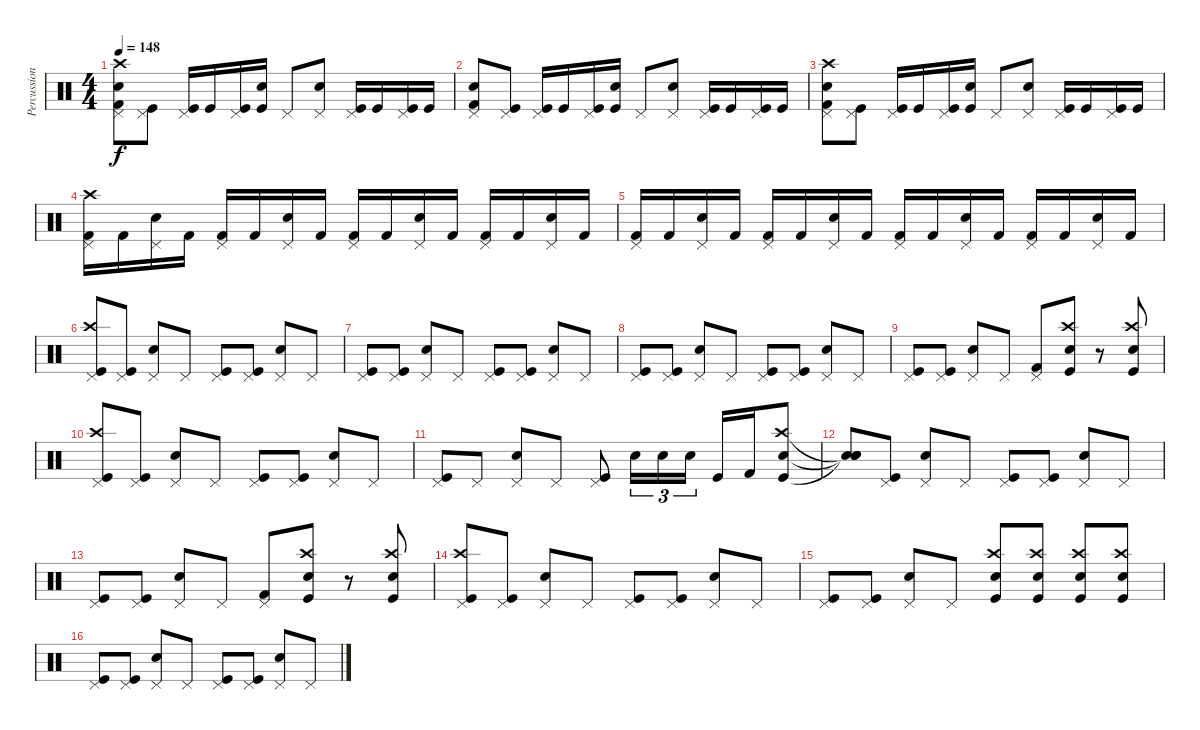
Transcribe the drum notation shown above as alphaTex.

\track ("Percussion" "Percussion") {instrument percussion}
\staff {score}
\articulation defaults
\ts (4 4)
\tempo 148
\clef neutral
\ks c
("Pedal Hi-Hat (hit)" "Kick (hit) 2" "Snare (hit) 2" "Crash high (hit)").8{dy f} ("Pedal Hi-Hat (hit)" "Kick (hit)").8 ("Pedal Hi-Hat (hit)" "Kick (hit)").16 "Kick (hit)".16 ("Pedal Hi-Hat (hit)" "Kick (hit)").16 ("Snare (hit) 2" "Kick (hit)").16 "Pedal Hi-Hat (hit)".8 ("Pedal Hi-Hat (hit)" "Snare (hit) 2").8 ("Pedal Hi-Hat (hit)" "Kick (hit)").16 "Kick (hit)".16 ("Pedal Hi-Hat (hit)" "Kick (hit)").16 "Kick (hit)".16 |
("Pedal Hi-Hat (hit)" "Kick (hit) 2" "Snare (hit) 2").8 ("Pedal Hi-Hat (hit)" "Kick (hit)").8 ("Pedal Hi-Hat (hit)" "Kick (hit)").16 "Kick (hit)".16 ("Pedal Hi-Hat (hit)" "Kick (hit)").16 ("Snare (hit) 2" "Kick (hit)").16 "Pedal Hi-Hat (hit)".8 ("Pedal Hi-Hat (hit)" "Snare (hit) 2").8 ("Pedal Hi-Hat (hit)" "Kick (hit)").16 "Kick (hit)".16 ("Pedal Hi-Hat (hit)" "Kick (hit)").16 "Kick (hit)".16 |
("Pedal Hi-Hat (hit)" "Kick (hit) 2" "Snare (hit) 2" "Crash high (hit)").8 ("Pedal Hi-Hat (hit)" "Kick (hit)").8 ("Pedal Hi-Hat (hit)" "Kick (hit)").16 "Kick (hit)".16 ("Pedal Hi-Hat (hit)" "Kick (hit)").16 ("Snare (hit) 2" "Kick (hit)").16 "Pedal Hi-Hat (hit)".8 ("Pedal Hi-Hat (hit)" "Snare (hit) 2").8 ("Pedal Hi-Hat (hit)" "Kick (hit)").16 "Kick (hit)".16 ("Pedal Hi-Hat (hit)" "Kick (hit)").16 "Kick (hit)".16 |
("Pedal Hi-Hat (hit)" "Kick (hit) 2" "Crash high (hit)").16 "Kick (hit) 2".16 ("Pedal Hi-Hat (hit)" "Snare (hit) 2").16 "Kick (hit) 2".16 ("Pedal Hi-Hat (hit)" "Kick (hit) 2").16 "Kick (hit) 2".16 ("Pedal Hi-Hat (hit)" "Snare (hit) 2").16 "Kick (hit) 2".16 ("Pedal Hi-Hat (hit)" "Kick (hit) 2").16 "Kick (hit) 2".16 ("Pedal Hi-Hat (hit)" "Snare (hit) 2").16 "Kick (hit) 2".16 ("Pedal Hi-Hat (hit)" "Kick (hit) 2").16 "Kick (hit) 2".16 ("Pedal Hi-Hat (hit)" "Snare (hit) 2").16 "Kick (hit) 2".16 |
("Pedal Hi-Hat (hit)" "Kick (hit) 2").16 "Kick (hit) 2".16 ("Pedal Hi-Hat (hit)" "Snare (hit) 2").16 "Kick (hit) 2".16 ("Pedal Hi-Hat (hit)" "Kick (hit) 2").16 "Kick (hit) 2".16 ("Pedal Hi-Hat (hit)" "Snare (hit) 2").16 "Kick (hit) 2".16 ("Pedal Hi-Hat (hit)" "Kick (hit) 2").16 "Kick (hit) 2".16 ("Pedal Hi-Hat (hit)" "Snare (hit) 2").16 "Kick (hit) 2".16 ("Pedal Hi-Hat (hit)" "Kick (hit) 2").16 "Kick (hit) 2".16 ("Pedal Hi-Hat (hit)" "Snare (hit) 2").16 "Kick (hit) 2".16 |
("Pedal Hi-Hat (hit)" "Kick (hit)" "Crash high (hit)").8 ("Pedal Hi-Hat (hit)" "Kick (hit)").8 ("Pedal Hi-Hat (hit)" "Snare (hit) 2").8 "Pedal Hi-Hat (hit)".8 ("Pedal Hi-Hat (hit)" "Kick (hit)").8 ("Pedal Hi-Hat (hit)" "Kick (hit)").8 ("Pedal Hi-Hat (hit)" "Snare (hit) 2").8 "Pedal Hi-Hat (hit)".8 |
("Pedal Hi-Hat (hit)" "Kick (hit)").8 ("Pedal Hi-Hat (hit)" "Kick (hit)").8 ("Pedal Hi-Hat (hit)" "Snare (hit) 2").8 "Pedal Hi-Hat (hit)".8 ("Pedal Hi-Hat (hit)" "Kick (hit)").8 ("Pedal Hi-Hat (hit)" "Kick (hit)").8 ("Pedal Hi-Hat (hit)" "Snare (hit) 2").8 "Pedal Hi-Hat (hit)".8 |
("Pedal Hi-Hat (hit)" "Kick (hit)").8 ("Pedal Hi-Hat (hit)" "Kick (hit)").8 ("Pedal Hi-Hat (hit)" "Snare (hit) 2").8 "Pedal Hi-Hat (hit)".8 ("Pedal Hi-Hat (hit)" "Kick (hit)").8 ("Pedal Hi-Hat (hit)" "Kick (hit)").8 ("Pedal Hi-Hat (hit)" "Snare (hit) 2").8 "Pedal Hi-Hat (hit)".8 |
("Pedal Hi-Hat (hit)" "Kick (hit)").8 ("Pedal Hi-Hat (hit)" "Kick (hit)").8 ("Pedal Hi-Hat (hit)" "Snare (hit) 2").8 "Pedal Hi-Hat (hit)".8 ("Pedal Hi-Hat (hit)" "Kick (hit) 2").8 ("Crash high (hit)" "Kick (hit)" "Snare (hit) 2").8 r.8 ("Crash high (hit)" "Kick (hit)" "Snare (hit) 2").8 |
("Pedal Hi-Hat (hit)" "Kick (hit)" "Crash high (hit)").8 ("Pedal Hi-Hat (hit)" "Kick (hit)").8 ("Pedal Hi-Hat (hit)" "Snare (hit) 2").8 "Pedal Hi-Hat (hit)".8 ("Pedal Hi-Hat (hit)" "Kick (hit)").8 ("Pedal Hi-Hat (hit)" "Kick (hit)").8 ("Pedal Hi-Hat (hit)" "Snare (hit) 2").8 "Pedal Hi-Hat (hit)".8 |
("Pedal Hi-Hat (hit)" "Kick (hit)").8 "Pedal Hi-Hat (hit)".8 ("Pedal Hi-Hat (hit)" "Snare (hit) 2").8 "Pedal Hi-Hat (hit)".8 ("Pedal Hi-Hat (hit)" "Kick (hit)").8 "Snare (hit) 2".16{tu (3 2)} "Snare (hit) 2".16{tu (3 2)} "Snare (hit) 2".16{tu (3 2)} "Kick (hit)".16 "Kick (hit) 2".16 ("Snare (hit) 2" "Crash high (hit)" "Kick (hit)").8 |
("Snare (hit)"{t} "Snare (hit)"{t} "Snare (hit)"{t}).8 ("Pedal Hi-Hat (hit)" "Kick (hit)").8 ("Pedal Hi-Hat (hit)" "Snare (hit) 2").8 "Pedal Hi-Hat (hit)".8 ("Pedal Hi-Hat (hit)" "Kick (hit)").8 ("Pedal Hi-Hat (hit)" "Kick (hit)").8 ("Pedal Hi-Hat (hit)" "Snare (hit) 2").8 "Pedal Hi-Hat (hit)".8 |
("Pedal Hi-Hat (hit)" "Kick (hit)").8 ("Pedal Hi-Hat (hit)" "Kick (hit)").8 ("Pedal Hi-Hat (hit)" "Snare (hit) 2").8 "Pedal Hi-Hat (hit)".8 ("Pedal Hi-Hat (hit)" "Kick (hit) 2").8 ("Crash high (hit)" "Kick (hit)" "Snare (hit) 2").8 r.8 ("Crash high (hit)" "Kick (hit)" "Snare (hit) 2").8 |
("Pedal Hi-Hat (hit)" "Kick (hit)" "Crash high (hit)").8 ("Pedal Hi-Hat (hit)" "Kick (hit)").8 ("Pedal Hi-Hat (hit)" "Snare (hit) 2").8 "Pedal Hi-Hat (hit)".8 ("Pedal Hi-Hat (hit)" "Kick (hit)").8 ("Pedal Hi-Hat (hit)" "Kick (hit)").8 ("Pedal Hi-Hat (hit)" "Snare (hit) 2").8 "Pedal Hi-Hat (hit)".8 |
("Pedal Hi-Hat (hit)" "Kick (hit)").8 ("Pedal Hi-Hat (hit)" "Kick (hit)").8 ("Pedal Hi-Hat (hit)" "Snare (hit) 2").8 "Pedal Hi-Hat (hit)".8 ("Snare (hit) 2" "Kick (hit)" "Crash high (hit)").8 ("Snare (hit) 2" "Kick (hit)" "Crash high (hit)").8 ("Snare (hit) 2" "Kick (hit)" "Crash high (hit)").8 ("Snare (hit) 2" "Kick (hit)" "Crash high (hit)").8 |
("Pedal Hi-Hat (hit)" "Kick (hit)").8 ("Pedal Hi-Hat (hit)" "Kick (hit)").8 ("Pedal Hi-Hat (hit)" "Snare (hit) 2").8 "Pedal Hi-Hat (hit)".8 ("Pedal Hi-Hat (hit)" "Kick (hit)").8 ("Pedal Hi-Hat (hit)" "Kick (hit)").8 ("Pedal Hi-Hat (hit)" "Snare (hit) 2").8 "Pedal Hi-Hat (hit)".8
